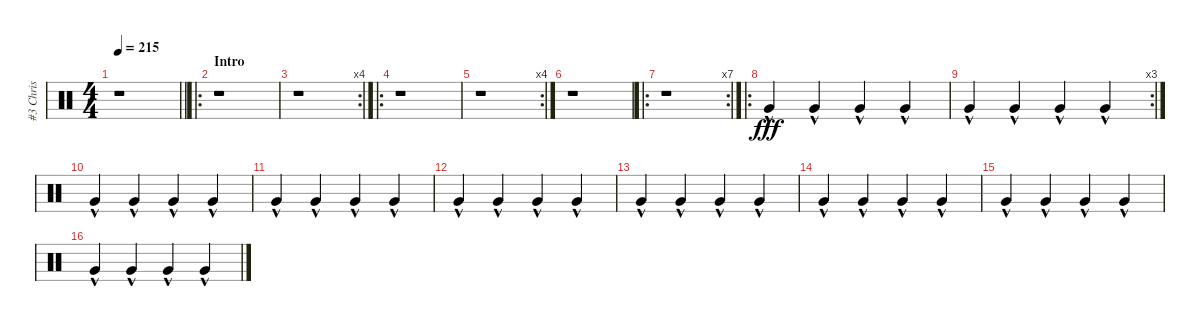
\track ("#3 Chris" "#3 Chris") {instrument percussion}
\staff {score}
\articulation defaults
\ts (4 4)
\tempo 215
\clef neutral
\barLineRight lightlight
\ks c
r.1{dy fff} |
\ro
\section ("" "Intro")
r.1 |
\rc 4
r.1 |
\ro
r.1 |
\rc 4
r.1 |
r.1 |
\ro
\rc 7
r.1 |
\ro "Very Low Tom (hit)"{hac}.4 "Very Low Tom (hit)"{hac}.4 "Very Low Tom (hit)"{hac}.4 "Very Low Tom (hit)"{hac}.4
|
\rc 3 "Very Low Tom (hit)"{hac}.4 "Very Low Tom (hit)"{hac}.4 "Very Low Tom (hit)"{hac}.4 "Very Low Tom (hit)"{hac}.4
|
"Very Low Tom (hit)"{hac}.4 "Very Low Tom (hit)"{hac}.4 "Very Low Tom (hit)"{hac}.4 "Very Low Tom (hit)"{hac}.4 |
"Very Low Tom (hit)"{hac}.4 "Very Low Tom (hit)"{hac}.4 "Very Low Tom (hit)"{hac}.4 "Very Low Tom (hit)"{hac}.4 |
"Very Low Tom (hit)"{hac}.4 "Very Low Tom (hit)"{hac}.4 "Very Low Tom (hit)"{hac}.4 "Very Low Tom (hit)"{hac}.4 |
"Very Low Tom (hit)"{hac}.4 "Very Low Tom (hit)"{hac}.4 "Very Low Tom (hit)"{hac}.4 "Very Low Tom (hit)"{hac}.4 |
"Very Low Tom (hit)"{hac}.4 "Very Low Tom (hit)"{hac}.4 "Very Low Tom (hit)"{hac}.4 "Very Low Tom (hit)"{hac}.4 |
"Very Low Tom (hit)"{hac}.4 "Very Low Tom (hit)"{hac}.4 "Very Low Tom (hit)"{hac}.4 "Very Low Tom (hit)"{hac}.4 |
"Very Low Tom (hit)"{hac}.4 "Very Low Tom (hit)"{hac}.4 "Very Low Tom (hit)"{hac}.4 "Very Low Tom (hit)"{hac}.4
